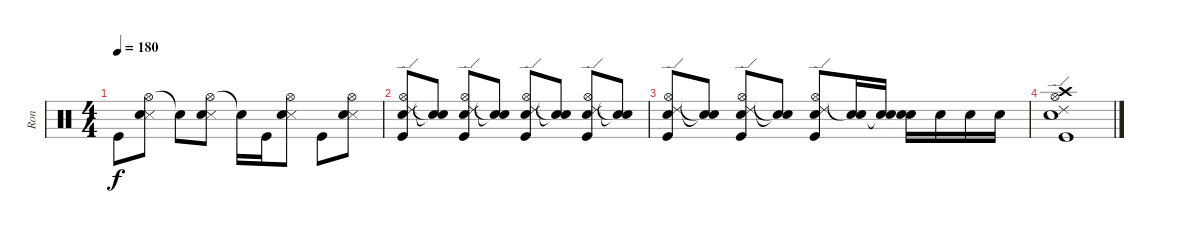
\track ("Ron" "Ron") {instrument percussion}
\staff {score}
\articulation defaults
\ts (4 4)
\tempo 180
\clef neutral
\ks c "Kick (hit)".8{dy f}
("Hi-Hat (open)" "Snare (side stick) 3" "Electric Snare (hit)").8 "Snare (hit)"{t}.8 ("Hi-Hat (open)" "Snare (side stick) 3" "Electric Snare (hit)").8 "Snare (hit)"{t}.16 "Kick (hit)".16 ("Hi-Hat (open)" "Snare (side stick) 3" "Electric Snare (hit)").8 "Kick (hit)".8 ("Hi-Hat (open)" "Snare (side stick) 3" "Electric Snare (hit)").8 |
("Hi-Hat (open)" "Ride (edge) 2" "Kick (hit)" "Electric Snare (hit)").8 ("Snare (hit)"{t} "Snare (hit)"{t}).8 ("Hi-Hat (open)" "Ride (edge) 2" "Kick (hit)" "Electric Snare (hit)").8 ("Snare (hit)"{t} "Snare (hit)"{t}).8 ("Hi-Hat (open)" "Ride (edge) 2" "Kick (hit)" "Electric Snare (hit)").8 ("Snare (hit)"{t} "Snare (hit)"{t}).8 ("Hi-Hat (open)" "Ride (edge) 2" "Kick (hit)" "Electric Snare (hit)").8 ("Snare (hit)"{t} "Snare (hit)"{t}).8 |
("Hi-Hat (open)" "Ride (edge) 2" "Kick (hit)" "Electric Snare (hit)").8 ("Snare (hit)"{t} "Snare (hit)"{t}).8 ("Hi-Hat (open)" "Ride (edge) 2" "Kick (hit)" "Electric Snare (hit)").8 ("Snare (hit)"{t} "Snare (hit)"{t}).8 ("Hi-Hat (open)" "Ride (edge) 2" "Kick (hit)" "Electric Snare (hit)").8 ("Snare (hit)"{t} "Electric Snare (hit)").16 ("Snare (hit)"{t} "Electric Snare (hit)").16 ("Snare (hit)"{t} "Electric Snare (hit)").16 "Electric Snare (hit)".16 "Electric Snare (hit)".16 "Electric Snare (hit)".16 |
("Hi-Hat (open)" "Ride (edge) 2" "Crash high (hit)" "Electric Snare (hit)" "Kick (hit)").1
